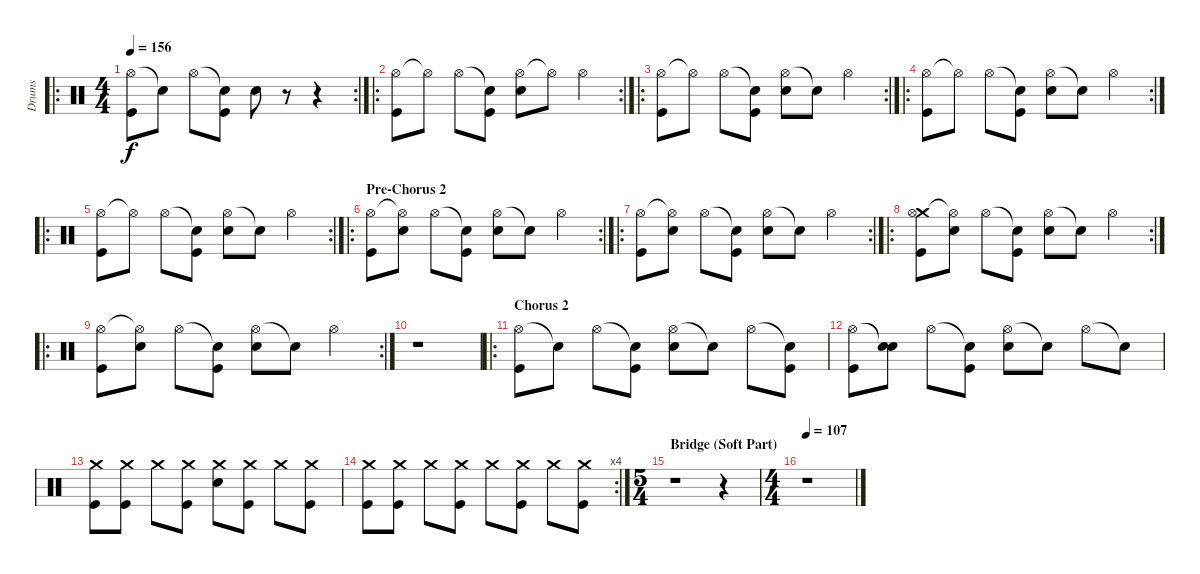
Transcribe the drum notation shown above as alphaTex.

\track ("Drums" "Drums") {instrument percussion}
\staff {score}
\articulation defaults
\ro
\rc 2
\ts (4 4)
\tempo 156
\clef neutral
\ks c
("Hi-Hat (open)" "Kick (hit)").8{dy f} "Snare (hit)"{t}.8 "Hi-Hat (open)".8 ("Snare (hit)"{t} "Kick (hit)").8 "Electric Snare (hit)".8 r.8 r.4 |
\ro
\rc 2
("Hi-Hat (open)" "Kick (hit)").8 "Hi-Hat (open)"{t}.8 "Hi-Hat (open)".8 ("Snare (hit)"{t} "Kick (hit)").8 ("Hi-Hat (open)" "Electric Snare (hit)").8 "Hi-Hat (open)"{t}.8 "Hi-Hat (open)".4 |
\ro
\rc 2
("Hi-Hat (open)" "Kick (hit)").8 "Hi-Hat (open)"{t}.8 "Hi-Hat (open)".8 ("Snare (hit)"{t} "Kick (hit)").8 ("Hi-Hat (open)" "Electric Snare (hit)").8 "Snare (hit)"{t}.8 "Hi-Hat (open)".4 |
\ro
\rc 2
("Hi-Hat (open)" "Kick (hit)").8 "Hi-Hat (open)"{t}.8 "Hi-Hat (open)".8 ("Snare (hit)"{t} "Kick (hit)").8 ("Hi-Hat (open)" "Electric Snare (hit)").8 "Snare (hit)"{t}.8 "Hi-Hat (open)".4 |
\ro
\rc 2
("Hi-Hat (open)" "Kick (hit)").8 "Hi-Hat (open)"{t}.8 "Hi-Hat (open)".8 ("Snare (hit)"{t} "Kick (hit)").8 ("Hi-Hat (open)" "Electric Snare (hit)").8 "Snare (hit)"{t}.8 "Hi-Hat (open)".4 |
\ro
\rc 2
\section ("" "Pre-Chorus 2")
("Hi-Hat (open)" "Kick (hit)").8 ("Hi-Hat (open)"{t} "Electric Snare (hit)").8 "Hi-Hat (open)".8 ("Snare (hit)"{t} "Kick (hit)").8 ("Hi-Hat (open)" "Electric Snare (hit)").8 "Snare (hit)"{t}.8 "Hi-Hat (open)".4 |
\ro
\rc 2
("Hi-Hat (open)" "Kick (hit)").8 ("Hi-Hat (open)"{t} "Electric Snare (hit)").8 "Hi-Hat (open)".8 ("Snare (hit)"{t} "Kick (hit)").8 ("Hi-Hat (open)" "Electric Snare (hit)").8 "Snare (hit)"{t}.8 "Hi-Hat (open)".4 |
\ro
\rc 2
("Crash medium (hit)" "Hi-Hat (open)" "Kick (hit)").8 ("Hi-Hat (open)"{t} "Electric Snare (hit)").8 "Hi-Hat (open)".8 ("Snare (hit)"{t} "Kick (hit)").8 ("Hi-Hat (open)" "Electric Snare (hit)").8 "Snare (hit)"{t}.8 "Hi-Hat (open)".4 |
\ro
\rc 2
("Hi-Hat (open)" "Kick (hit)").8 ("Hi-Hat (open)"{t} "Electric Snare (hit)").8 "Hi-Hat (open)".8 ("Snare (hit)"{t} "Kick (hit)").8 ("Hi-Hat (open)" "Electric Snare (hit)").8 "Snare (hit)"{t}.8 "Hi-Hat (open)".4 |
r.1 |
\ro
\section ("" "Chorus 2")
("Hi-Hat (open)" "Kick (hit)").8 "Snare (hit)"{t}.8 "Hi-Hat (open)".8 ("Snare (hit)"{t} "Kick (hit)").8 ("Hi-Hat (open)" "Electric Snare (hit)").8 "Snare (hit)"{t}.8 "Hi-Hat (open)".8 ("Snare (hit)"{t} "Kick (hit)").8 |
("Hi-Hat (open)" "Kick (hit)").8 ("Snare (hit)"{t} "Electric Snare (hit)").8 "Hi-Hat (open)".8 ("Snare (hit)"{t} "Kick (hit)").8 ("Hi-Hat (open)" "Electric Snare (hit)").8 "Snare (hit)"{t}.8 "Hi-Hat (open)".8 "Snare (hit)"{t}.8 |
("Crash medium (hit)" "Kick (hit)").8 ("Crash medium (hit)" "Kick (hit)").8 "Crash medium (hit)".8 ("Crash medium (hit)" "Kick (hit)").8 ("Crash medium (hit)" "Electric Snare (hit)").8 ("Crash medium (hit)" "Kick (hit)").8 "Crash medium (hit)".8 ("Crash medium (hit)" "Kick (hit)").8 |
\rc 4
("Crash medium (hit)" "Kick (hit)").8 ("Crash medium (hit)" "Kick (hit)").8 "Crash medium (hit)".8 ("Crash medium (hit)" "Kick (hit)").8 "Crash medium (hit)".8 ("Crash medium (hit)" "Kick (hit)").8 "Crash medium (hit)".8 ("Crash medium (hit)" "Kick (hit)").8 |
\ts (5 4)
\section ("" "Bridge (Soft Part)")
r.1 r.4 |
\ts (4 4)
\tempo 107
r.1
